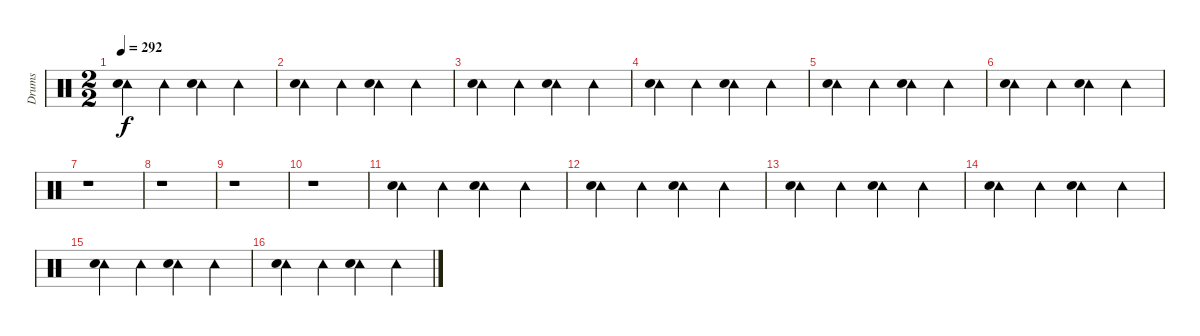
\track ("Drums" "Drums") {instrument percussion}
\staff {score}
\articulation defaults
\ts (2 2)
\tempo 292
\clef neutral
\ks c
("Tambourine (hit)" "Electric Snare (hit)").4{dy f} "Tambourine (hit)".4 ("Tambourine (hit)" "Electric Snare (hit)").4 "Tambourine (hit)".4 |
("Tambourine (hit)" "Electric Snare (hit)").4 "Tambourine (hit)".4 ("Tambourine (hit)" "Electric Snare (hit)").4 "Tambourine (hit)".4 |
("Tambourine (hit)" "Electric Snare (hit)").4 "Tambourine (hit)".4 ("Tambourine (hit)" "Electric Snare (hit)").4 "Tambourine (hit)".4 |
("Tambourine (hit)" "Electric Snare (hit)").4 "Tambourine (hit)".4 ("Tambourine (hit)" "Electric Snare (hit)").4 "Tambourine (hit)".4 |
("Tambourine (hit)" "Electric Snare (hit)").4 "Tambourine (hit)".4 ("Tambourine (hit)" "Electric Snare (hit)").4 "Tambourine (hit)".4 |
("Tambourine (hit)" "Electric Snare (hit)").4 "Tambourine (hit)".4 ("Tambourine (hit)" "Electric Snare (hit)").4 "Tambourine (hit)".4 |
r.1 |
r.1 |
r.1 |
r.1 |
("Tambourine (hit)" "Electric Snare (hit)").4 "Tambourine (hit)".4 ("Tambourine (hit)" "Electric Snare (hit)").4 "Tambourine (hit)".4 |
("Tambourine (hit)" "Electric Snare (hit)").4 "Tambourine (hit)".4 ("Tambourine (hit)" "Electric Snare (hit)").4 "Tambourine (hit)".4 |
("Tambourine (hit)" "Electric Snare (hit)").4 "Tambourine (hit)".4 ("Tambourine (hit)" "Electric Snare (hit)").4 "Tambourine (hit)".4 |
("Tambourine (hit)" "Electric Snare (hit)").4 "Tambourine (hit)".4 ("Tambourine (hit)" "Electric Snare (hit)").4 "Tambourine (hit)".4 |
("Tambourine (hit)" "Electric Snare (hit)").4 "Tambourine (hit)".4 ("Tambourine (hit)" "Electric Snare (hit)").4 "Tambourine (hit)".4 |
("Tambourine (hit)" "Electric Snare (hit)").4 "Tambourine (hit)".4 ("Tambourine (hit)" "Electric Snare (hit)").4 "Tambourine (hit)".4
